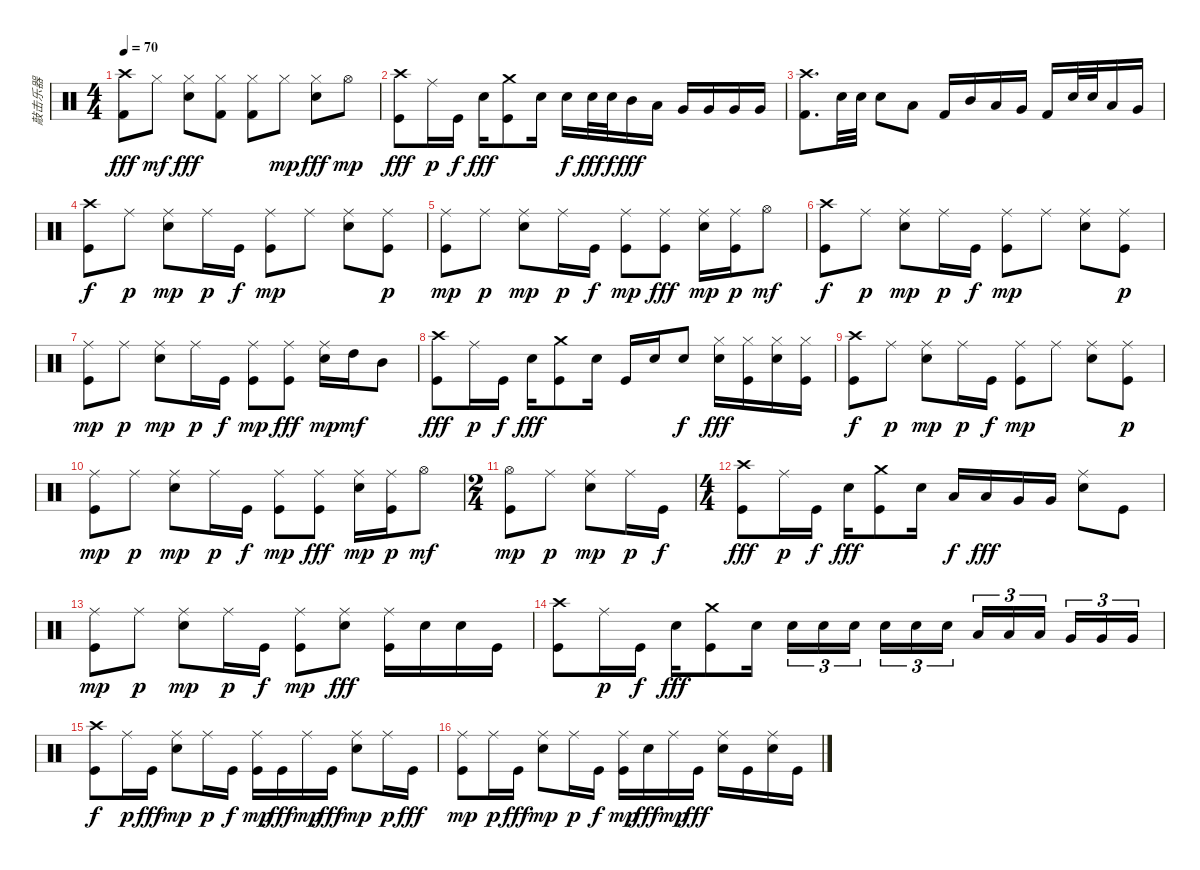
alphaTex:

\track ("敲击乐器" "敲击乐器") {instrument percussion}
\staff {score}
\articulation defaults
\ts (4 4)
\tempo 70
\clef neutral
\ks c
("Crash high (hit)" "Kick (hit) 2").8{dy fff} "Hi-Hat (closed)".8{dy mf} ("Hi-Hat (closed)" "Electric Snare (hit)").8{dy fff} ("Hi-Hat (closed)" "Kick (hit) 2").8 ("Hi-Hat (closed)" "Kick (hit) 2").8 "Hi-Hat (closed)".8{dy mp} ("Hi-Hat (closed)" "Electric Snare (hit)").8{dy fff} "Hi-Hat (open)".8{dy mp} |
("Crash high (hit)" "Kick (hit)").8{dy fff} "Ride (middle)".16{dy p} "Kick (hit)".16{dy f} "Electric Snare (hit)".16{dy fff} ("Crash medium (hit)" "Kick (hit)").8 "Electric Snare (hit)".16 "Electric Snare (hit)".16{dy f} "Electric Snare (hit)".32{dy fff} "Electric Snare (hit)".32{dy f} "Mid Tom (hit)".16{dy fff} "Low Tom (hit)".16 "Very Low Tom (hit)".16 "Very Low Tom (hit)".16 "Very Low Tom (hit)".16 "Very Low Tom (hit)".16 |
("Crash high (hit)" "Kick (hit) 2").8{d} "Electric Snare (hit)".32 "Electric Snare (hit)".32 "Electric Snare (hit)".8 "Low Tom (hit)".8 "Kick (hit) 2".16 "Mid Tom (hit)".16 "Low Tom (hit)".16 "Very Low Tom (hit)".16 "Kick (hit) 2".16 "Electric Snare (hit)".32 "Electric Snare (hit)".32 "Low Tom (hit)".16 "Very Low Tom (hit)".16 |
("Crash high (hit)" "Kick (hit)").8{dy f} "Ride (middle)".8{dy p} ("Ride (middle)" "Electric Snare (hit)").8{dy mp} "Ride (middle)".16{dy p} "Kick (hit)".16{dy f} ("Ride (middle)" "Kick (hit)").8{dy mp} "Ride (middle)".8 ("Ride (middle)" "Electric Snare (hit)").8 ("Ride (middle)" "Kick (hit)").8{dy p} |
("Ride (middle)" "Kick (hit)").8{dy mp} "Ride (middle)".8{dy p} ("Ride (middle)" "Electric Snare (hit)").8{dy mp} "Ride (middle)".16{dy p} "Kick (hit)".16{dy f} ("Ride (middle)" "Kick (hit)").8{dy mp} ("Ride (middle)" "Kick (hit)").8{dy fff} ("Ride (middle)" "Electric Snare (hit)").16{dy mp} ("Ride (middle)" "Kick (hit)").16{dy p} "Hi-Hat (open)".8{dy mf} |
("Crash high (hit)" "Kick (hit)").8{dy f} "Ride (middle)".8{dy p} ("Ride (middle)" "Electric Snare (hit)").8{dy mp} "Ride (middle)".16{dy p} "Kick (hit)".16{dy f} ("Ride (middle)" "Kick (hit)").8{dy mp} "Ride (middle)".8 ("Ride (middle)" "Electric Snare (hit)").8 ("Ride (middle)" "Kick (hit)").8{dy p} |
("Ride (middle)" "Kick (hit)").8{dy mp} "Ride (middle)".8{dy p} ("Ride (middle)" "Electric Snare (hit)").8{dy mp} "Ride (middle)".16{dy p} "Kick (hit)".16{dy f} ("Ride (middle)" "Kick (hit)").8{dy mp} ("Ride (middle)" "Kick (hit)").8{dy fff} ("Ride (middle)" "Electric Snare (hit)").16{dy mp} "High Tom (hit)".16{dy mf} "Mid Tom (hit)".8 |
("Crash high (hit)" "Kick (hit)").8{dy fff} "Ride (middle)".16{dy p} "Kick (hit)".16{dy f} "Electric Snare (hit)".16{dy fff} ("Crash medium (hit)" "Kick (hit)").8 "Electric Snare (hit)".16 "Kick (hit)".16 "Electric Snare (hit)".16 "Electric Snare (hit)".8{dy f} ("Hi-Hat (closed)" "Electric Snare (hit)").16{dy fff} ("Hi-Hat (closed)" "Kick (hit)").16 ("Hi-Hat (closed)" "Electric Snare (hit)").16 ("Hi-Hat (closed)" "Kick (hit)").16 |
("Crash high (hit)" "Kick (hit)").8{dy f} "Ride (middle)".8{dy p} ("Ride (middle)" "Electric Snare (hit)").8{dy mp} "Ride (middle)".16{dy p} "Kick (hit)".16{dy f} ("Ride (middle)" "Kick (hit)").8{dy mp} "Ride (middle)".8 ("Ride (middle)" "Electric Snare (hit)").8 ("Ride (middle)" "Kick (hit)").8{dy p} |
("Ride (middle)" "Kick (hit)").8{dy mp} "Ride (middle)".8{dy p} ("Ride (middle)" "Electric Snare (hit)").8{dy mp} "Ride (middle)".16{dy p} "Kick (hit)".16{dy f} ("Ride (middle)" "Kick (hit)").8{dy mp} ("Ride (middle)" "Kick (hit)").8{dy fff} ("Ride (middle)" "Electric Snare (hit)").16{dy mp} ("Ride (middle)" "Kick (hit)").16{dy p} "Hi-Hat (open)".8{dy mf} |
\ts (2 4)
("Hi-Hat (open)" "Kick (hit)").8{dy mp} "Ride (middle)".8{dy p} ("Ride (middle)" "Electric Snare (hit)").8{dy mp} "Ride (middle)".16{dy p} "Kick (hit)".16{dy f} |
\ts (4 4)
("Crash high (hit)" "Kick (hit)").8{dy fff} "Ride (middle)".16{dy p} "Kick (hit)".16{dy f} "Electric Snare (hit)".16{dy fff} ("Crash medium (hit)" "Kick (hit)").8 "Electric Snare (hit)".16 "Low Tom (hit)".16{dy f} "Low Tom (hit)".16{dy fff} "Very Low Tom (hit)".16 "Very Low Tom (hit)".16 ("Ride (middle)" "Electric Snare (hit)").8 "Kick (hit)".8 |
("Ride (middle)" "Kick (hit)").8{dy mp} "Ride (middle)".8{dy p} ("Ride (middle)" "Electric Snare (hit)").8{dy mp} "Ride (middle)".16{dy p} "Kick (hit)".16{dy f} ("Ride (middle)" "Kick (hit)").8{dy mp} ("Ride (middle)" "Electric Snare (hit)").8{dy fff} ("Ride (middle)" "Kick (hit)").16 "Electric Snare (hit)".16 "Electric Snare (hit)".16 "Kick (hit)".16 |
("Crash high (hit)" "Kick (hit)").8 "Ride (middle)".16{dy p} "Kick (hit)".16{dy f} "Electric Snare (hit)".16{dy fff} ("Crash medium (hit)" "Kick (hit)").8 "Electric Snare (hit)".16 "Electric Snare (hit)".16{tu (3 2)} "Electric Snare (hit)".16{tu (3 2)} "Electric Snare (hit)".16{tu (3 2) beam splitsecondary} "Electric Snare (hit)".16{tu (3 2)} "Electric Snare (hit)".16{tu (3 2)} "Electric Snare (hit)".16{tu (3 2)} "Low Tom (hit)".16{tu (3 2)} "Low Tom (hit)".16{tu (3 2)} "Low Tom (hit)".16{tu (3 2) beam splitsecondary} "Very Low Tom (hit)".16{tu (3 2)} "Very Low Tom (hit)".16{tu (3 2)} "Very Low Tom (hit)".16{tu (3 2)} |
("Crash high (hit)" "Kick (hit)").8{dy f} "Ride (middle)".16{dy p} "Kick (hit)".16{dy fff} ("Ride (middle)" "Electric Snare (hit)").8{dy mp} "Ride (middle)".16{dy p} "Kick (hit)".16{dy f} ("Ride (middle)" "Kick (hit)").16{dy mp} "Kick (hit)".16{dy fff} "Ride (middle)".16{dy mp} "Kick (hit)".16{dy fff} ("Ride (middle)" "Electric Snare (hit)").8{dy mp} "Ride (middle)".16{dy p} "Kick (hit)".16{dy fff} |
("Ride (middle)" "Kick (hit)").8{dy mp} "Ride (middle)".16{dy p} "Kick (hit)".16{dy fff} ("Ride (middle)" "Electric Snare (hit)").8{dy mp} "Ride (middle)".16{dy p} "Kick (hit)".16{dy f} ("Ride (middle)" "Kick (hit)").16{dy mp} "Electric Snare (hit)".16{dy fff} "Ride (middle)".16{dy mp} "Kick (hit)".16{dy fff} ("Ride (middle)" "Electric Snare (hit)").16 "Kick (hit)".16 ("Ride (middle)" "Electric Snare (hit)").16 "Kick (hit)".16
